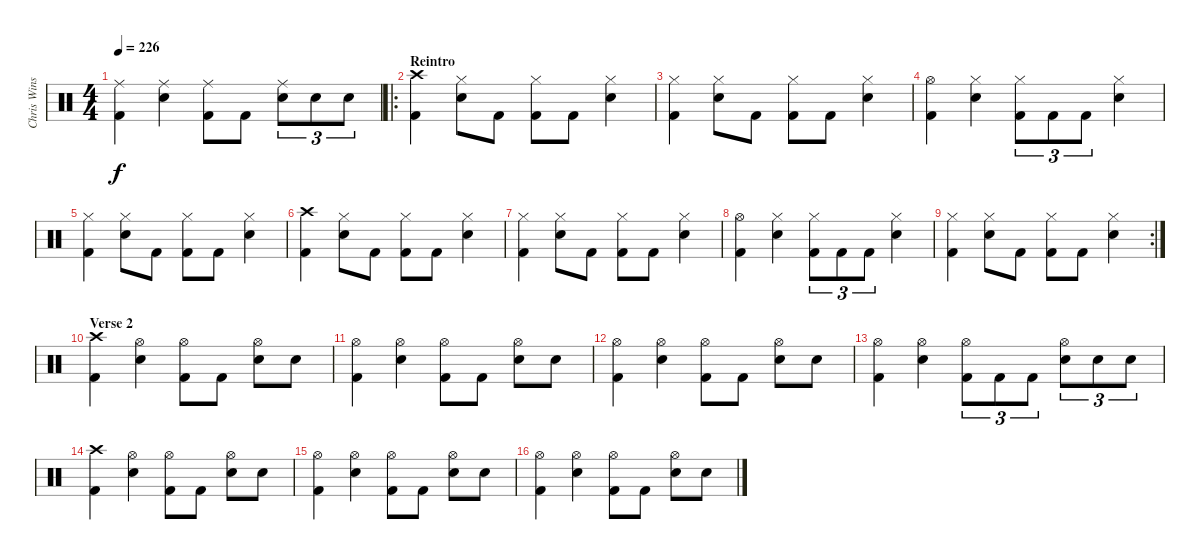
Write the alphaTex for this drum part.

\track ("Chris Winship (Drums)" "Chris Wins") {instrument percussion}
\staff {score}
\articulation defaults
\ts (4 4)
\tempo 226
\clef neutral
\ks c
("Ride (middle)" "Kick (hit) 2").4{dy f} ("Ride (middle)" "Electric Snare (hit)").4 ("Ride (middle)" "Kick (hit) 2").8 "Kick (hit) 2".8 ("Ride (middle)" "Electric Snare (hit)").8{tu (3 2)} "Electric Snare (hit)".8{tu (3 2)} "Electric Snare (hit)".8{tu (3 2)} |
\ro
\section ("" "Reintro")
("Crash high (hit)" "Kick (hit) 2").4 ("Hi-Hat (closed)" "Electric Snare (hit)").8 "Kick (hit) 2".8 ("Hi-Hat (closed)" "Kick (hit) 2").8 "Kick (hit) 2".8 ("Hi-Hat (closed)" "Electric Snare (hit)").4 |
("Hi-Hat (closed)" "Kick (hit) 2").4 ("Hi-Hat (closed)" "Electric Snare (hit)").8 "Kick (hit) 2".8 ("Hi-Hat (closed)" "Kick (hit) 2").8 "Kick (hit) 2".8 ("Hi-Hat (closed)" "Electric Snare (hit)").4 |
("Hi-Hat (open)" "Kick (hit) 2").4 ("Hi-Hat (closed)" "Electric Snare (hit)").4 ("Hi-Hat (closed)" "Kick (hit) 2").8{tu (3 2)} "Kick (hit) 2".8{tu (3 2)} "Kick (hit) 2".8{tu (3 2)} ("Hi-Hat (closed)" "Electric Snare (hit)").4 |
("Hi-Hat (closed)" "Kick (hit) 2").4 ("Hi-Hat (closed)" "Electric Snare (hit)").8 "Kick (hit) 2".8 ("Hi-Hat (closed)" "Kick (hit) 2").8 "Kick (hit) 2".8 ("Hi-Hat (closed)" "Electric Snare (hit)").4 |
("Crash high (hit)" "Kick (hit) 2").4 ("Hi-Hat (closed)" "Electric Snare (hit)").8 "Kick (hit) 2".8 ("Hi-Hat (closed)" "Kick (hit) 2").8 "Kick (hit) 2".8 ("Hi-Hat (closed)" "Electric Snare (hit)").4 |
("Hi-Hat (closed)" "Kick (hit) 2").4 ("Hi-Hat (closed)" "Electric Snare (hit)").8 "Kick (hit) 2".8 ("Hi-Hat (closed)" "Kick (hit) 2").8 "Kick (hit) 2".8 ("Hi-Hat (closed)" "Electric Snare (hit)").4 |
("Hi-Hat (open)" "Kick (hit) 2").4 ("Hi-Hat (closed)" "Electric Snare (hit)").4 ("Hi-Hat (closed)" "Kick (hit) 2").8{tu (3 2)} "Kick (hit) 2".8{tu (3 2)} "Kick (hit) 2".8{tu (3 2)} ("Hi-Hat (closed)" "Electric Snare (hit)").4 |
\rc 2
("Hi-Hat (closed)" "Kick (hit) 2").4 ("Hi-Hat (closed)" "Electric Snare (hit)").8 "Kick (hit) 2".8 ("Hi-Hat (closed)" "Kick (hit) 2").8 "Kick (hit) 2".8 ("Hi-Hat (closed)" "Electric Snare (hit)").4 |
\section ("" "Verse 2")
("Crash high (hit)" "Kick (hit) 2").4 ("Hi-Hat (open)" "Electric Snare (hit)").4 ("Hi-Hat (open)" "Kick (hit) 2").8 "Kick (hit) 2".8 ("Hi-Hat (open)" "Electric Snare (hit)").8 "Electric Snare (hit)".8 |
("Hi-Hat (open)" "Kick (hit) 2").4 ("Hi-Hat (open)" "Electric Snare (hit)").4 ("Hi-Hat (open)" "Kick (hit) 2").8 "Kick (hit) 2".8 ("Hi-Hat (open)" "Electric Snare (hit)").8 "Electric Snare (hit)".8 |
("Hi-Hat (open)" "Kick (hit) 2").4 ("Hi-Hat (open)" "Electric Snare (hit)").4 ("Hi-Hat (open)" "Kick (hit) 2").8 "Kick (hit) 2".8 ("Hi-Hat (open)" "Electric Snare (hit)").8 "Electric Snare (hit)".8 |
("Hi-Hat (open)" "Kick (hit) 2").4 ("Hi-Hat (open)" "Electric Snare (hit)").4 ("Hi-Hat (open)" "Kick (hit) 2").8{tu (3 2)} "Kick (hit) 2".8{tu (3 2)} "Kick (hit) 2".8{tu (3 2)} ("Hi-Hat (open)" "Electric Snare (hit)").8{tu (3 2)} "Electric Snare (hit)".8{tu (3 2)} "Electric Snare (hit)".8{tu (3 2)} |
("Crash high (hit)" "Kick (hit) 2").4 ("Hi-Hat (open)" "Electric Snare (hit)").4 ("Hi-Hat (open)" "Kick (hit) 2").8 "Kick (hit) 2".8 ("Hi-Hat (open)" "Electric Snare (hit)").8 "Electric Snare (hit)".8 |
("Hi-Hat (open)" "Kick (hit) 2").4 ("Hi-Hat (open)" "Electric Snare (hit)").4 ("Hi-Hat (open)" "Kick (hit) 2").8 "Kick (hit) 2".8 ("Hi-Hat (open)" "Electric Snare (hit)").8 "Electric Snare (hit)".8 |
("Hi-Hat (open)" "Kick (hit) 2").4 ("Hi-Hat (open)" "Electric Snare (hit)").4 ("Hi-Hat (open)" "Kick (hit) 2").8 "Kick (hit) 2".8 ("Hi-Hat (open)" "Electric Snare (hit)").8 "Electric Snare (hit)".8
